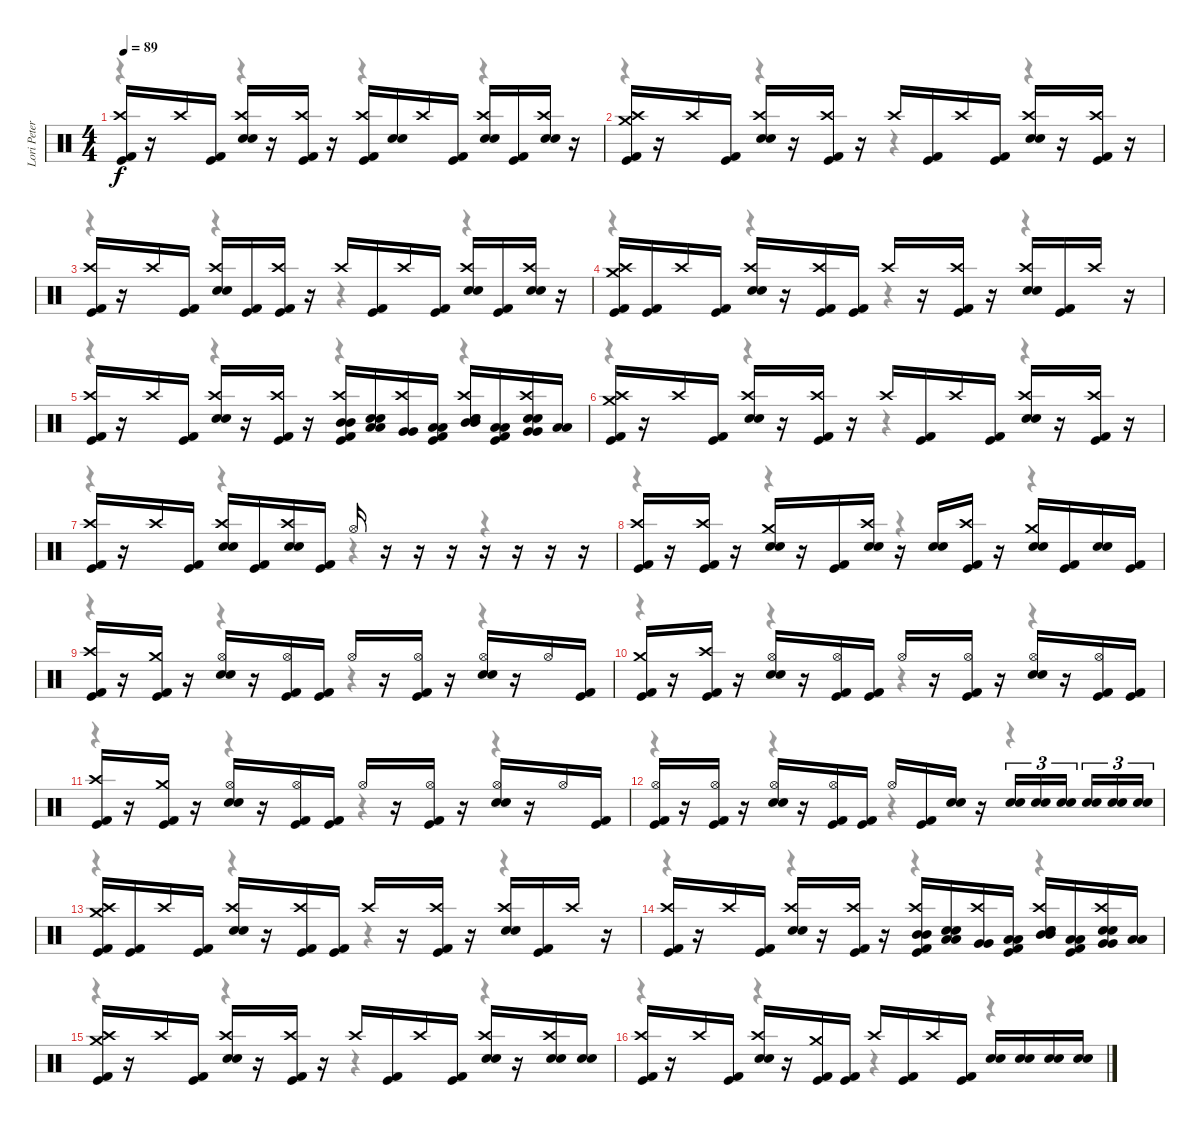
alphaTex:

\track ("Lori Peters" "Lori Peter") {instrument percussion}
\staff {score}
\articulation defaults
\voice
\ts (4 4)
\tempo 89
\clef neutral
\ks c
("Crash high (hit)" "Kick (hit) 2" "Kick (hit)").16{dy f} r.16 "Crash high (hit)".16 ("Kick (hit) 2" "Kick (hit)").16 ("Crash high (hit)" "Snare (hit) 2" "Snare (hit) 2").16 r.16 ("Crash high (hit)" "Kick (hit) 2" "Kick (hit)").16 r.16 ("Crash high (hit)" "Kick (hit) 2" "Kick (hit)").16 ("Snare (hit) 2" "Snare (hit) 2").16 "Crash high (hit)".16 ("Kick (hit) 2" "Kick (hit)").16 ("Crash high (hit)" "Snare (hit) 2" "Snare (hit) 2").16 ("Kick (hit) 2" "Kick (hit)").16 ("Crash high (hit)" "Snare (hit) 2" "Snare (hit) 2").16 r.16 |
("Crash high (hit)" "Crash medium (hit)" "Kick (hit) 2" "Kick (hit)").16 r.16 "Crash high (hit)".16 ("Kick (hit) 2" "Kick (hit)").16 ("Crash high (hit)" "Snare (hit) 2" "Snare (hit) 2").16 r.16 ("Crash high (hit)" "Kick (hit) 2" "Kick (hit)").16 r.16 "Crash high (hit)".16 ("Kick (hit) 2" "Kick (hit)").16 "Crash high (hit)".16 ("Kick (hit) 2" "Kick (hit)").16 ("Crash high (hit)" "Snare (hit) 2" "Snare (hit) 2").16 r.16 ("Crash high (hit)" "Kick (hit) 2" "Kick (hit)").16 r.16 |
("Crash high (hit)" "Kick (hit) 2" "Kick (hit)").16 r.16 "Crash high (hit)".16 ("Kick (hit) 2" "Kick (hit)").16 ("Crash high (hit)" "Snare (hit) 2" "Snare (hit) 2").16 ("Kick (hit) 2" "Kick (hit)").16 ("Crash high (hit)" "Kick (hit) 2" "Kick (hit)").16 r.16 "Crash high (hit)".16 ("Kick (hit) 2" "Kick (hit)").16 "Crash high (hit)".16 ("Kick (hit) 2" "Kick (hit)").16 ("Crash high (hit)" "Snare (hit) 2" "Snare (hit) 2").16 ("Kick (hit) 2" "Kick (hit)").16 ("Crash high (hit)" "Snare (hit) 2" "Snare (hit) 2").16 r.16 |
("Crash high (hit)" "Crash medium (hit)" "Kick (hit) 2" "Kick (hit)").16 ("Kick (hit) 2" "Kick (hit)").16 "Crash high (hit)".16 ("Kick (hit) 2" "Kick (hit)").16 ("Crash high (hit)" "Snare (hit) 2" "Snare (hit) 2").16 r.16 ("Crash high (hit)" "Kick (hit) 2" "Kick (hit)").16 ("Kick (hit) 2" "Kick (hit)").16 "Crash high (hit)".16 r.16 ("Crash high (hit)" "Kick (hit) 2" "Kick (hit)").16 r.16 ("Crash high (hit)" "Snare (hit) 2" "Snare (hit) 2").16 ("Kick (hit) 2" "Kick (hit)").16 "Crash high (hit)".16 r.16 |
("Crash high (hit)" "Kick (hit) 2" "Kick (hit)").16 r.16 "Crash high (hit)".16 ("Kick (hit) 2" "Kick (hit)").16 ("Crash high (hit)" "Snare (hit) 2" "Snare (hit) 2").16 r.16 ("Crash high (hit)" "Kick (hit) 2" "Kick (hit)").16 r.16 ("Crash high (hit)" "Mid Tom (hit)" "Mid Tom (hit)" "Kick (hit) 2" "Kick (hit)").16 ("Low Tom (hit)" "Low Tom (hit)" "Snare (hit) 2" "Snare (hit) 2").16 ("Crash high (hit)" "Very Low Tom (hit)" "Very Low Tom (hit)").16 ("Low Floor Tom (hit)" "Low Floor Tom (hit)" "Kick (hit) 2" "Kick (hit)").16 ("Crash high (hit)" "Mid Tom (hit)" "Mid Tom (hit)" "Snare (hit) 2" "Snare (hit) 2").16 ("Low Tom (hit)" "Low Tom (hit)" "Kick (hit) 2" "Kick (hit)").16 ("Crash high (hit)" "Very Low Tom (hit)" "Very Low Tom (hit)" "Snare (hit) 2" "Snare (hit) 2").16 ("Low Floor Tom (hit)" "Low Floor Tom (hit)").16 |
("Crash high (hit)" "Crash medium (hit)" "Kick (hit) 2" "Kick (hit)").16 r.16 "Crash high (hit)".16 ("Kick (hit) 2" "Kick (hit)").16 ("Crash high (hit)" "Snare (hit) 2" "Snare (hit) 2").16 r.16 ("Crash high (hit)" "Kick (hit) 2" "Kick (hit)").16 r.16 "Crash high (hit)".16 ("Kick (hit) 2" "Kick (hit)").16 "Crash high (hit)".16 ("Kick (hit) 2" "Kick (hit)").16 ("Crash high (hit)" "Snare (hit) 2" "Snare (hit) 2").16 r.16 ("Crash high (hit)" "Kick (hit) 2" "Kick (hit)").16 r.16 |
("Crash high (hit)" "Kick (hit) 2" "Kick (hit)").16 r.16 "Crash high (hit)".16 ("Kick (hit) 2" "Kick (hit)").16 ("Crash high (hit)" "Snare (hit) 2" "Snare (hit) 2").16 ("Kick (hit) 2" "Kick (hit)").16 ("Crash high (hit)" "Snare (hit) 2" "Snare (hit) 2").16 ("Kick (hit) 2" "Kick (hit)").16 "Hi-Hat (open)".16 r.16 r.16 r.16 r.16 r.16 r.16 r.16 |
("Crash high (hit)" "Kick (hit) 2" "Kick (hit)").16 r.16 ("Crash high (hit)" "Kick (hit) 2" "Kick (hit)").16 r.16 ("Crash medium (hit)" "Snare (hit) 2" "Snare (hit) 2").16 r.16 ("Kick (hit) 2" "Kick (hit)").16 ("Crash high (hit)" "Snare (hit) 2" "Snare (hit) 2").16 r.16 ("Snare (hit) 2" "Snare (hit) 2").16 ("Crash high (hit)" "Kick (hit) 2" "Kick (hit)").16 r.16 ("Crash medium (hit)" "Snare (hit) 2" "Snare (hit) 2").16 ("Kick (hit) 2" "Kick (hit)").16 ("Snare (hit) 2" "Snare (hit) 2").16 ("Kick (hit) 2" "Kick (hit)").16 |
("Crash high (hit)" "Kick (hit) 2" "Kick (hit)").16 r.16 ("Crash medium (hit)" "Kick (hit) 2" "Kick (hit)").16 r.16 ("Hi-Hat (open)" "Snare (hit) 2" "Snare (hit) 2").16 r.16 ("Hi-Hat (open)" "Kick (hit) 2" "Kick (hit)").16 ("Kick (hit) 2" "Kick (hit)").16 "Hi-Hat (open)".16 r.16 ("Hi-Hat (open)" "Kick (hit) 2" "Kick (hit)").16 r.16 ("Hi-Hat (open)" "Snare (hit) 2" "Snare (hit) 2").16 r.16 "Hi-Hat (open)".16 ("Kick (hit) 2" "Kick (hit)").16 |
("Crash medium (hit)" "Kick (hit) 2" "Kick (hit)").16 r.16 ("Crash high (hit)" "Kick (hit) 2" "Kick (hit)").16 r.16 ("Hi-Hat (open)" "Snare (hit) 2" "Snare (hit) 2").16 r.16 ("Hi-Hat (open)" "Kick (hit) 2" "Kick (hit)").16 ("Kick (hit) 2" "Kick (hit)").16 "Hi-Hat (open)".16 r.16 ("Hi-Hat (open)" "Kick (hit) 2" "Kick (hit)").16 r.16 ("Hi-Hat (open)" "Snare (hit) 2" "Snare (hit) 2").16 r.16 ("Hi-Hat (open)" "Kick (hit) 2" "Kick (hit)").16 ("Kick (hit) 2" "Kick (hit)").16 |
("Crash high (hit)" "Kick (hit) 2" "Kick (hit)").16 r.16 ("Crash medium (hit)" "Kick (hit) 2" "Kick (hit)").16 r.16 ("Hi-Hat (open)" "Snare (hit) 2" "Snare (hit) 2").16 r.16 ("Hi-Hat (open)" "Kick (hit) 2" "Kick (hit)").16 ("Kick (hit) 2" "Kick (hit)").16 "Hi-Hat (open)".16 r.16 ("Hi-Hat (open)" "Kick (hit) 2" "Kick (hit)").16 r.16 ("Hi-Hat (open)" "Snare (hit) 2" "Snare (hit) 2").16 r.16 "Hi-Hat (open)".16 ("Kick (hit) 2" "Kick (hit)").16 |
("Hi-Hat (open)" "Kick (hit) 2" "Kick (hit)").16 r.16 ("Hi-Hat (open)" "Kick (hit) 2" "Kick (hit)").16 r.16 ("Hi-Hat (open)" "Snare (hit) 2" "Snare (hit) 2").16 r.16 ("Hi-Hat (open)" "Kick (hit) 2" "Kick (hit)").16 ("Kick (hit) 2" "Kick (hit)").16 "Hi-Hat (open)".16 ("Kick (hit) 2" "Kick (hit)").16 ("Snare (hit) 2" "Snare (hit) 2").16 r.16 ("Snare (hit) 2" "Snare (hit) 2").16{tu (3 2)} ("Snare (hit) 2" "Snare (hit) 2").16{tu (3 2)} ("Snare (hit) 2" "Snare (hit) 2").16{tu (3 2)} ("Snare (hit) 2" "Snare (hit) 2").16{tu (3 2)} ("Snare (hit) 2" "Snare (hit) 2").16{tu (3 2)} ("Snare (hit) 2" "Snare (hit) 2").16{tu (3 2)} |
("Crash high (hit)" "Crash medium (hit)" "Kick (hit) 2" "Kick (hit)").16 ("Kick (hit) 2" "Kick (hit)").16 "Crash high (hit)".16 ("Kick (hit) 2" "Kick (hit)").16 ("Crash high (hit)" "Snare (hit) 2" "Snare (hit) 2").16 r.16 ("Crash high (hit)" "Kick (hit) 2" "Kick (hit)").16 ("Kick (hit) 2" "Kick (hit)").16 "Crash high (hit)".16 r.16 ("Crash high (hit)" "Kick (hit) 2" "Kick (hit)").16 r.16 ("Crash high (hit)" "Snare (hit) 2" "Snare (hit) 2").16 ("Kick (hit) 2" "Kick (hit)").16 "Crash high (hit)".16 r.16 |
("Crash high (hit)" "Kick (hit) 2" "Kick (hit)").16 r.16 "Crash high (hit)".16 ("Kick (hit) 2" "Kick (hit)").16 ("Crash high (hit)" "Snare (hit) 2" "Snare (hit) 2").16 r.16 ("Crash high (hit)" "Kick (hit) 2" "Kick (hit)").16 r.16 ("Crash high (hit)" "Mid Tom (hit)" "Mid Tom (hit)" "Kick (hit) 2" "Kick (hit)").16 ("Low Tom (hit)" "Low Tom (hit)" "Snare (hit) 2" "Snare (hit) 2").16 ("Crash high (hit)" "Very Low Tom (hit)" "Very Low Tom (hit)").16 ("Low Floor Tom (hit)" "Low Floor Tom (hit)" "Kick (hit) 2" "Kick (hit)").16 ("Crash high (hit)" "Mid Tom (hit)" "Mid Tom (hit)" "Snare (hit) 2" "Snare (hit) 2").16 ("Low Tom (hit)" "Low Tom (hit)" "Kick (hit) 2" "Kick (hit)").16 ("Crash high (hit)" "Very Low Tom (hit)" "Very Low Tom (hit)" "Snare (hit) 2" "Snare (hit) 2").16 ("Low Floor Tom (hit)" "Low Floor Tom (hit)").16 |
("Crash high (hit)" "Crash medium (hit)" "Kick (hit) 2" "Kick (hit)").16 r.16 "Crash high (hit)".16 ("Kick (hit) 2" "Kick (hit)").16 ("Crash high (hit)" "Snare (hit) 2" "Snare (hit) 2").16 r.16 ("Crash high (hit)" "Kick (hit) 2" "Kick (hit)").16 r.16 "Crash high (hit)".16 ("Kick (hit) 2" "Kick (hit)").16 "Crash high (hit)".16 ("Kick (hit) 2" "Kick (hit)").16 ("Crash high (hit)" "Snare (hit) 2" "Snare (hit) 2").16 r.16 ("Crash high (hit)" "Snare (hit) 2" "Snare (hit) 2").16 ("Snare (hit) 2" "Snare (hit) 2").16 |
("Crash high (hit)" "Kick (hit) 2" "Kick (hit)").16 r.16 "Crash high (hit)".16 ("Kick (hit) 2" "Kick (hit)").16 ("Crash high (hit)" "Snare (hit) 2" "Snare (hit) 2").16 r.16 ("Crash medium (hit)" "Kick (hit) 2" "Kick (hit)").16 ("Kick (hit) 2" "Kick (hit)").16 "Crash high (hit)".16 ("Kick (hit) 2" "Kick (hit)").16 "Crash high (hit)".16 ("Kick (hit) 2" "Kick (hit)").16 ("Snare (hit) 2" "Snare (hit) 2").16 ("Snare (hit) 2" "Snare (hit) 2").16 ("Snare (hit) 2" "Snare (hit) 2").16 ("Snare (hit) 2" "Snare (hit) 2").16
\voice
\clef neutral
\ottava regular
\simile none
\ks c
r.4{dy f} r.4 r.4 r.4 |
r.4 r.4 r.4 r.4 |
r.4 r.4 r.4 r.4 |
r.4 r.4 r.4 r.4 |
r.4 r.4 r.4 r.4 |
r.4 r.4 r.4 r.4 |
r.4 r.4 r.4 r.4 |
r.4 r.4 r.4 r.4 |
r.4 r.4 r.4 r.4 |
r.4 r.4 r.4 r.4 |
r.4 r.4 r.4 r.4 |
r.4 r.4 r.4 r.4 |
r.4 r.4 r.4 r.4 |
r.4 r.4 r.4 r.4 |
r.4 r.4 r.4 r.4 |
r.4 r.4 r.4 r.4
